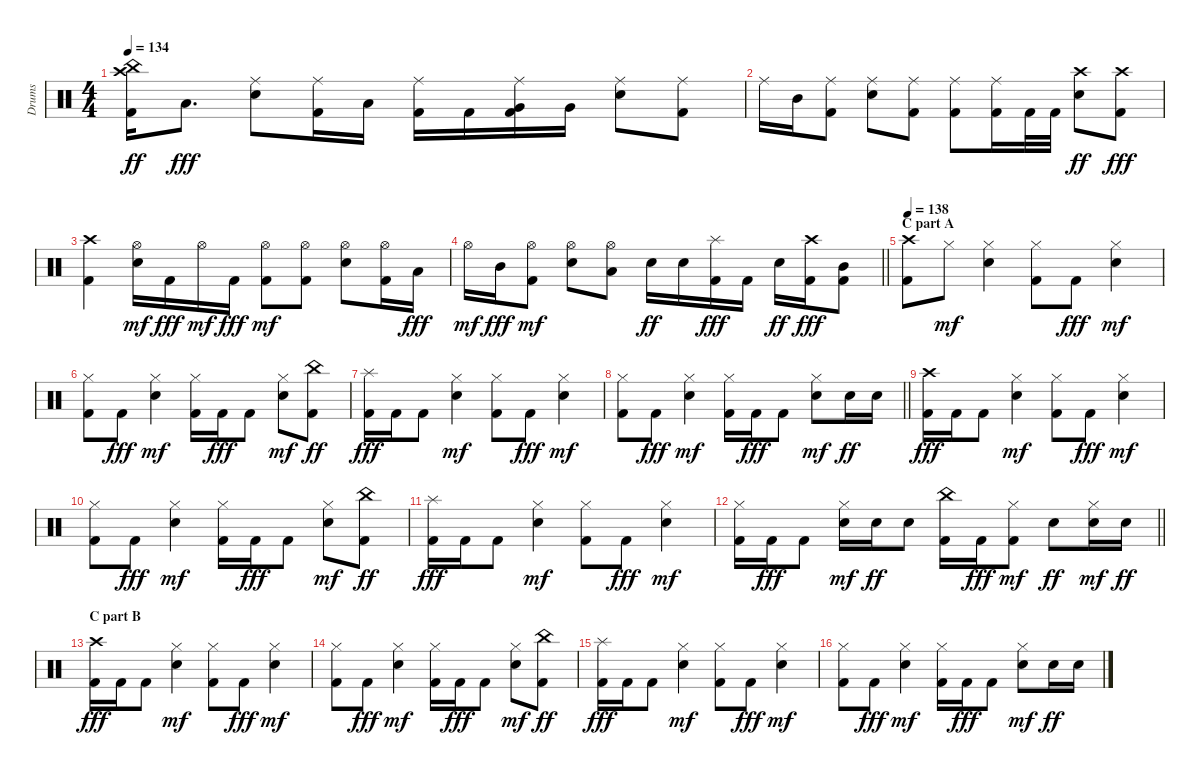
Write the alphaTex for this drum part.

\track ("Drums" "Drums") {instrument percussion}
\staff {score}
\articulation defaults
\ts (4 4)
\tempo 134
\clef neutral
\ks c
("Kick (hit) 2" "China (hit)" "Crash high (hit)").16{dy ff} "Low Tom (hit)".8{d dy fff} ("Snare (hit) 2" "Ride (middle)").8 ("Kick (hit) 2" "Ride (middle)").16 "Low Tom (hit)".16 ("Kick (hit) 2" "Ride (middle)").16 "Kick (hit) 2".16 ("Kick (hit) 2" "Very Low Tom (hit)" "Ride (middle)").16 "Very Low Tom (hit)".16 ("Snare (hit) 2" "Ride (middle)").8 ("Kick (hit) 2" "Ride (middle)").8 |
"Ride (middle)".16 "Mid Tom (hit)".16 ("Kick (hit) 2" "Ride (middle)").8 ("Snare (hit) 2" "Ride (middle)").8 ("Kick (hit) 2" "Ride (middle)").8 ("Kick (hit) 2" "Ride (middle)").8 ("Kick (hit) 2" "Ride (middle)").16 "Kick (hit) 2".32 "Kick (hit) 2".32 ("Snare (hit) 2" "Crash high (hit)").8{dy ff} ("Kick (hit) 2" "Crash high (hit)").8{dy fff} |
("Kick (hit) 2" "Crash high (hit)").4 ("Snare (hit) 2" "Hi-Hat (open)").16{dy mf} "Kick (hit) 2".16{dy fff} "Hi-Hat (open)".16{dy mf} "Kick (hit) 2".16{dy fff} ("Kick (hit) 2" "Hi-Hat (open)").8{dy mf} ("Kick (hit) 2" "Hi-Hat (open)").8 ("Snare (hit) 2" "Hi-Hat (open)").8 ("Kick (hit) 2" "Hi-Hat (open)").16 "Low Tom (hit)".16{dy fff} |
\barLineRight lightlight "Hi-Hat (open)".16{dy mf} "Mid Tom (hit)".16{dy fff}
("Kick (hit) 2" "Hi-Hat (open)").8{dy mf} ("Snare (hit) 2" "Hi-Hat (open)").8 ("Low Tom (hit)" "Hi-Hat (open)").8 "Snare (hit) 2".16{dy ff} "Snare (hit) 2".16 ("Kick (hit) 2" "Splash (hit)").16{dy fff} "Kick (hit) 2".16 "Snare (hit) 2".16{dy ff} ("Kick (hit) 2" "Crash high (hit)").16{dy fff} ("Kick (hit) 2" "Mid Tom (hit)").8 |
\section ("" "C part A")
\tempo 138
("Kick (hit) 2" "Crash high (hit)").8 "Hi-Hat (closed)".8{dy mf} ("Snare (hit) 2" "Hi-Hat (closed)").4 ("Kick (hit) 2" "Hi-Hat (closed)").8 "Kick (hit) 2".8{dy fff} ("Snare (hit) 2" "Hi-Hat (closed)").4{dy mf} |
("Kick (hit) 2" "Hi-Hat (closed)").8 "Kick (hit) 2".8{dy fff} ("Snare (hit) 2" "Hi-Hat (closed)").4{dy mf} ("Kick (hit) 2" "Hi-Hat (closed)").16 "Kick (hit) 2".16{dy fff} "Kick (hit) 2".8 ("Snare (hit) 2" "Hi-Hat (closed)").8{dy mf} ("Kick (hit) 2" "China (hit)").8{dy ff} |
("Kick (hit) 2" "Splash (hit)").16{dy fff} "Kick (hit) 2".16 "Kick (hit) 2".8 ("Snare (hit) 2" "Hi-Hat (closed)").4{dy mf} ("Kick (hit) 2" "Hi-Hat (closed)").8 "Kick (hit) 2".8{dy fff} ("Snare (hit) 2" "Hi-Hat (closed)").4{dy mf} |
\barLineRight lightlight
("Kick (hit) 2" "Hi-Hat (closed)").8 "Kick (hit) 2".8{dy fff} ("Snare (hit) 2" "Hi-Hat (closed)").4{dy mf} ("Kick (hit) 2" "Hi-Hat (closed)").16 "Kick (hit) 2".16{dy fff} "Kick (hit) 2".8 ("Snare (hit) 2" "Hi-Hat (closed)").8{dy mf} "Snare (hit) 2".16{dy ff} "Snare (hit) 2".16 |
("Kick (hit) 2" "Crash high (hit)").16{dy fff} "Kick (hit) 2".16 "Kick (hit) 2".8 ("Snare (hit) 2" "Hi-Hat (closed)").4{dy mf} ("Kick (hit) 2" "Hi-Hat (closed)").8 "Kick (hit) 2".8{dy fff} ("Snare (hit) 2" "Hi-Hat (closed)").4{dy mf} |
("Kick (hit) 2" "Hi-Hat (closed)").8 "Kick (hit) 2".8{dy fff} ("Snare (hit) 2" "Hi-Hat (closed)").4{dy mf} ("Kick (hit) 2" "Hi-Hat (closed)").16 "Kick (hit) 2".16{dy fff} "Kick (hit) 2".8 ("Snare (hit) 2" "Hi-Hat (closed)").8{dy mf} ("Kick (hit) 2" "China (hit)").8{dy ff} |
("Kick (hit) 2" "Splash (hit)").16{dy fff} "Kick (hit) 2".16 "Kick (hit) 2".8 ("Snare (hit) 2" "Hi-Hat (closed)").4{dy mf} ("Kick (hit) 2" "Hi-Hat (closed)").8 "Kick (hit) 2".8{dy fff} ("Snare (hit) 2" "Hi-Hat (closed)").4{dy mf} |
\barLineRight lightlight
("Kick (hit) 2" "Hi-Hat (closed)").16 "Kick (hit) 2".16{dy fff} "Kick (hit) 2".8 ("Snare (hit) 2" "Hi-Hat (closed)").16{dy mf} "Snare (hit) 2".16{dy ff} "Snare (hit) 2".8 ("Kick (hit) 2" "China (hit)").16 "Kick (hit) 2".16{dy fff} ("Kick (hit) 2" "Hi-Hat (closed)").8{dy mf} "Snare (hit) 2".8{dy ff} ("Snare (hit) 2" "Hi-Hat (closed)").16{dy mf} "Snare (hit) 2".16{dy ff} |
\section ("" "C part B")
("Kick (hit) 2" "Crash high (hit)").16{dy fff} "Kick (hit) 2".16 "Kick (hit) 2".8 ("Snare (hit) 2" "Hi-Hat (closed)").4{dy mf} ("Kick (hit) 2" "Hi-Hat (closed)").8 "Kick (hit) 2".8{dy fff} ("Snare (hit) 2" "Hi-Hat (closed)").4{dy mf} |
("Kick (hit) 2" "Hi-Hat (closed)").8 "Kick (hit) 2".8{dy fff} ("Snare (hit) 2" "Hi-Hat (closed)").4{dy mf} ("Kick (hit) 2" "Hi-Hat (closed)").16 "Kick (hit) 2".16{dy fff} "Kick (hit) 2".8 ("Snare (hit) 2" "Hi-Hat (closed)").8{dy mf} ("Kick (hit) 2" "China (hit)").8{dy ff} |
("Kick (hit) 2" "Splash (hit)").16{dy fff} "Kick (hit) 2".16 "Kick (hit) 2".8 ("Snare (hit) 2" "Hi-Hat (closed)").4{dy mf} ("Kick (hit) 2" "Hi-Hat (closed)").8 "Kick (hit) 2".8{dy fff} ("Snare (hit) 2" "Hi-Hat (closed)").4{dy mf} |
("Kick (hit) 2" "Hi-Hat (closed)").8 "Kick (hit) 2".8{dy fff} ("Snare (hit) 2" "Hi-Hat (closed)").4{dy mf} ("Kick (hit) 2" "Hi-Hat (closed)").16 "Kick (hit) 2".16{dy fff} "Kick (hit) 2".8 ("Snare (hit) 2" "Hi-Hat (closed)").8{dy mf} "Snare (hit) 2".16{dy ff} "Snare (hit) 2".16
